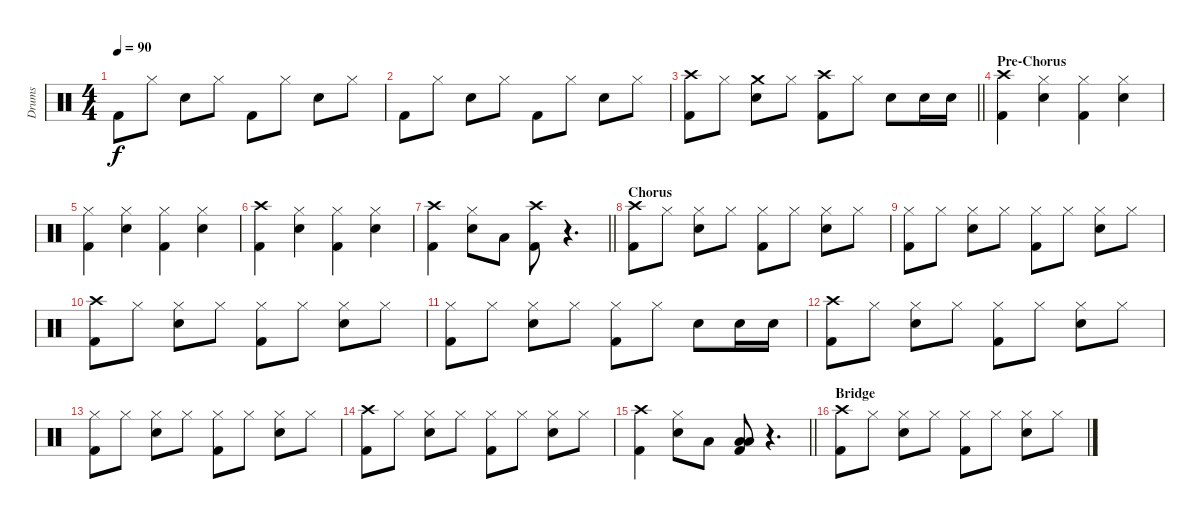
\track ("Drums" "Drums") {instrument percussion}
\staff {score}
\articulation defaults
\ts (4 4)
\tempo 90
\clef neutral
\ks c "Kick (hit) 2".8{dy f} "Hi-Hat (closed)".8 "Snare (hit) 2".8 "Hi-Hat (closed)".8 "Kick (hit) 2".8 "Hi-Hat (closed)".8 "Snare (hit) 2".8 "Hi-Hat (closed)".8
|
"Kick (hit) 2".8 "Hi-Hat (closed)".8 "Snare (hit) 2".8 "Hi-Hat (closed)".8 "Kick (hit) 2".8 "Hi-Hat (closed)".8 "Snare (hit) 2".8 "Hi-Hat (closed)".8 |
\barLineRight lightlight
("Crash high (hit)" "Kick (hit) 2").8 "Hi-Hat (closed)".8 ("Crash medium (hit)" "Snare (hit) 2").8 "Hi-Hat (closed)".8 ("Crash high (hit)" "Kick (hit) 2").8 "Hi-Hat (closed)".8 "Snare (hit) 2".8 "Snare (hit) 2".16 "Snare (hit) 2".16 |
\section ("" "Pre-Chorus")
("Crash high (hit)" "Kick (hit) 2").4 ("Hi-Hat (closed)" "Snare (hit) 2").4 ("Hi-Hat (closed)" "Kick (hit) 2").4 ("Hi-Hat (closed)" "Snare (hit) 2").4 |
("Hi-Hat (closed)" "Kick (hit) 2").4 ("Hi-Hat (closed)" "Snare (hit) 2").4 ("Hi-Hat (closed)" "Kick (hit) 2").4 ("Hi-Hat (closed)" "Snare (hit) 2").4 |
("Crash high (hit)" "Kick (hit) 2").4 ("Hi-Hat (closed)" "Snare (hit) 2").4 ("Hi-Hat (closed)" "Kick (hit) 2").4 ("Hi-Hat (closed)" "Snare (hit) 2").4 |
\barLineRight lightlight
("Crash high (hit)" "Kick (hit) 2").4 ("Hi-Hat (closed)" "Snare (hit) 2").8 "Low Tom (hit)".8 ("Crash high (hit)" "Kick (hit) 2").8 r.4{d} |
\section ("" "Chorus")
("Crash high (hit)" "Kick (hit) 2").8 "Hi-Hat (closed)".8 ("Hi-Hat (closed)" "Snare (hit) 2").8 "Hi-Hat (closed)".8 ("Hi-Hat (closed)" "Kick (hit) 2").8 "Hi-Hat (closed)".8 ("Hi-Hat (closed)" "Snare (hit) 2").8 "Hi-Hat (closed)".8 |
("Hi-Hat (closed)" "Kick (hit) 2").8 "Hi-Hat (closed)".8 ("Hi-Hat (closed)" "Snare (hit) 2").8 "Hi-Hat (closed)".8 ("Hi-Hat (closed)" "Kick (hit) 2").8 "Hi-Hat (closed)".8 ("Hi-Hat (closed)" "Snare (hit) 2").8 "Hi-Hat (closed)".8 |
("Crash high (hit)" "Kick (hit) 2").8 "Hi-Hat (closed)".8 ("Hi-Hat (closed)" "Snare (hit) 2").8 "Hi-Hat (closed)".8 ("Hi-Hat (closed)" "Kick (hit) 2").8 "Hi-Hat (closed)".8 ("Hi-Hat (closed)" "Snare (hit) 2").8 "Hi-Hat (closed)".8 |
("Hi-Hat (closed)" "Kick (hit) 2").8 "Hi-Hat (closed)".8 ("Hi-Hat (closed)" "Snare (hit) 2").8 "Hi-Hat (closed)".8 ("Hi-Hat (closed)" "Kick (hit) 2").8 "Hi-Hat (closed)".8 "Snare (hit) 2".8 "Snare (hit) 2".16 "Snare (hit) 2".16 |
("Crash high (hit)" "Kick (hit) 2").8 "Hi-Hat (closed)".8 ("Hi-Hat (closed)" "Snare (hit) 2").8 "Hi-Hat (closed)".8 ("Hi-Hat (closed)" "Kick (hit) 2").8 "Hi-Hat (closed)".8 ("Hi-Hat (closed)" "Snare (hit) 2").8 "Hi-Hat (closed)".8 |
("Hi-Hat (closed)" "Kick (hit) 2").8 "Hi-Hat (closed)".8 ("Hi-Hat (closed)" "Snare (hit) 2").8 "Hi-Hat (closed)".8 ("Hi-Hat (closed)" "Kick (hit) 2").8 "Hi-Hat (closed)".8 ("Hi-Hat (closed)" "Snare (hit) 2").8 "Hi-Hat (closed)".8 |
("Crash high (hit)" "Kick (hit) 2").8 "Hi-Hat (closed)".8 ("Hi-Hat (closed)" "Snare (hit) 2").8 "Hi-Hat (closed)".8 ("Hi-Hat (closed)" "Kick (hit) 2").8 "Hi-Hat (closed)".8 ("Hi-Hat (closed)" "Snare (hit) 2").8 "Hi-Hat (closed)".8 |
\barLineRight lightlight
("Crash high (hit)" "Kick (hit) 2").4 ("Hi-Hat (closed)" "Snare (hit) 2").8 "Low Tom (hit)".8 ("Low Tom (hit)" "Low Floor Tom (hit)" "Kick (hit) 2").8 r.4{d} |
\section ("" "Bridge")
("Crash high (hit)" "Kick (hit) 2").8 "Hi-Hat (closed)".8 ("Hi-Hat (closed)" "Snare (hit) 2").8 "Hi-Hat (closed)".8 ("Hi-Hat (closed)" "Kick (hit) 2").8 "Hi-Hat (closed)".8 ("Hi-Hat (closed)" "Snare (hit) 2").8 "Hi-Hat (closed)".8
